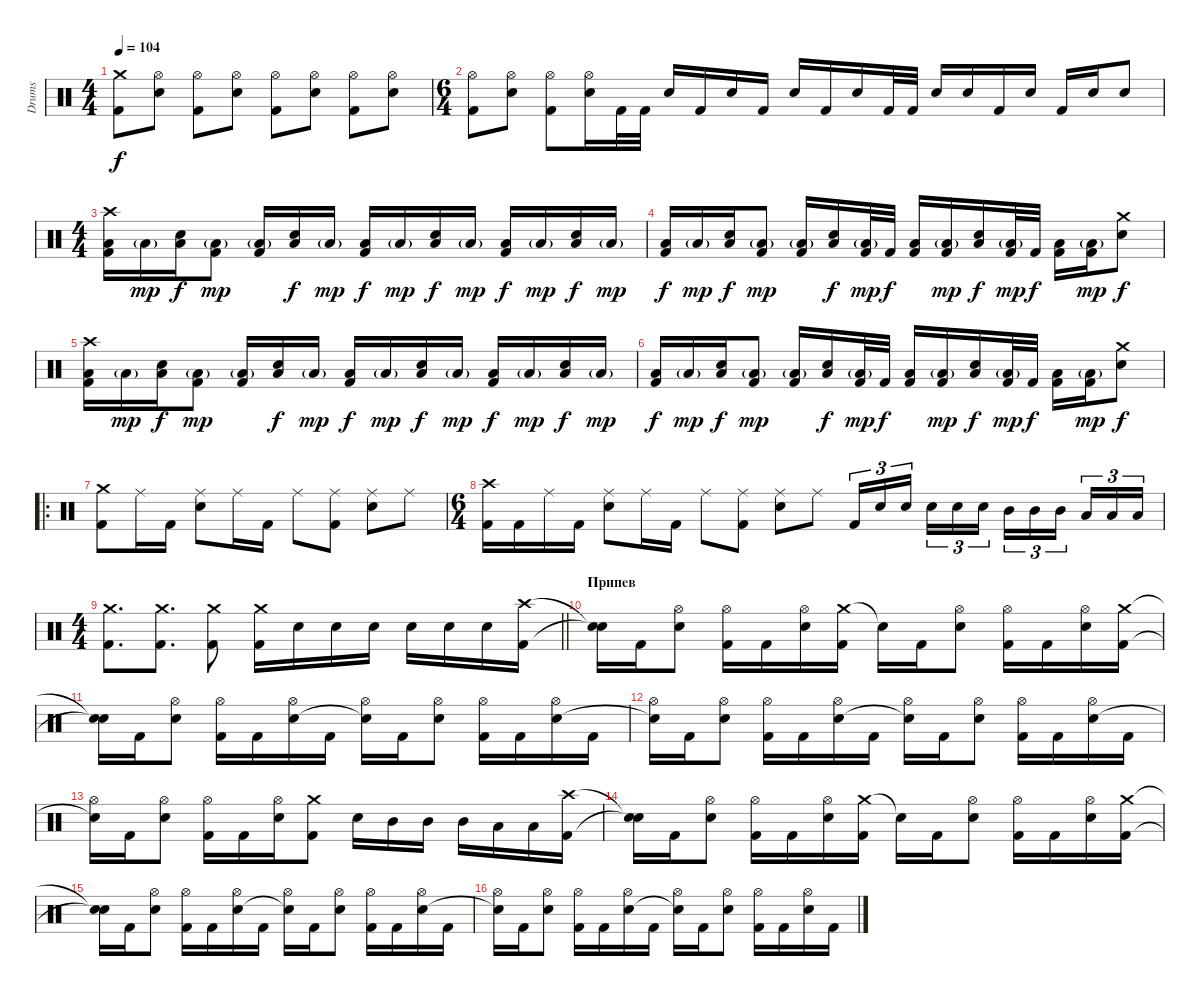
\track ("Drums" "Drums") {instrument percussion}
\staff {score}
\articulation defaults
\ts (4 4)
\tempo 104
\clef neutral
\ks c
("Crash medium (hit)" "Kick (hit) 2").8{dy f} ("Hi-Hat (open)" "Electric Snare (hit)").8 ("Hi-Hat (open)" "Kick (hit) 2").8 ("Hi-Hat (open)" "Electric Snare (hit)").8 ("Hi-Hat (open)" "Kick (hit) 2").8 ("Hi-Hat (open)" "Electric Snare (hit)").8 ("Hi-Hat (open)" "Kick (hit) 2").8 ("Hi-Hat (open)" "Electric Snare (hit)").8 |
\ts (6 4)
("Hi-Hat (open)" "Kick (hit) 2").8 ("Hi-Hat (open)" "Electric Snare (hit)").8 ("Hi-Hat (open)" "Kick (hit) 2").8 ("Hi-Hat (open)" "Electric Snare (hit)").16 "Kick (hit) 2".32 "Kick (hit) 2".32 "Electric Snare (hit)".16 "Kick (hit) 2".16 "Electric Snare (hit)".16 "Kick (hit) 2".16 "Electric Snare (hit)".16 "Kick (hit) 2".16 "Electric Snare (hit)".16 "Kick (hit) 2".32 "Kick (hit) 2".32 "Electric Snare (hit)".16 "Electric Snare (hit)".16 "Kick (hit) 2".16 "Electric Snare (hit)".16 "Kick (hit) 2".16 "Electric Snare (hit)".16 "Electric Snare (hit)".8 |
\ts (4 4)
("Low Floor Tom (hit)" "Crash high (hit)" "Kick (hit) 2").16 "Low Floor Tom (hit)"{g}.16{dy mp} ("Low Floor Tom (hit)" "Electric Snare (hit)").16{dy f} ("Low Floor Tom (hit)"{g} "Kick (hit) 2").8{dy mp} ("Low Floor Tom (hit)"{g} "Kick (hit) 2").16 ("Low Floor Tom (hit)" "Electric Snare (hit)").16{dy f} "Low Floor Tom (hit)"{g}.16{dy mp} ("Low Floor Tom (hit)" "Kick (hit) 2").16{dy f} "Low Floor Tom (hit)"{g}.16{dy mp} ("Low Floor Tom (hit)" "Electric Snare (hit)").16{dy f} "Low Floor Tom (hit)"{g}.16{dy mp} ("Low Floor Tom (hit)" "Kick (hit) 2").16{dy f} "Low Floor Tom (hit)"{g}.16{dy mp} ("Low Floor Tom (hit)" "Electric Snare (hit)").16{dy f} "Low Floor Tom (hit)"{g}.16{dy mp} |
("Low Floor Tom (hit)" "Kick (hit) 2").16{dy f} "Low Floor Tom (hit)"{g}.16{dy mp} ("Low Floor Tom (hit)" "Electric Snare (hit)").16{dy f} ("Low Floor Tom (hit)"{g} "Kick (hit) 2").8{dy mp} ("Low Floor Tom (hit)"{g} "Kick (hit) 2").16 ("Low Floor Tom (hit)" "Electric Snare (hit)").16{dy f} ("Low Floor Tom (hit)"{g} "Kick (hit) 2").32{dy mp} "Kick (hit) 2".32{dy f} ("Low Floor Tom (hit)" "Kick (hit) 2").16 ("Low Floor Tom (hit)"{g} "Kick (hit) 2").16{dy mp} ("Low Floor Tom (hit)" "Electric Snare (hit)").16{dy f} ("Low Floor Tom (hit)"{g} "Kick (hit) 2").32{dy mp} "Kick (hit) 2".32{dy f} ("Low Floor Tom (hit)" "Kick (hit) 2").16 ("Low Floor Tom (hit)"{g} "Kick (hit) 2").16{dy mp} ("Crash medium (hit)" "Electric Snare (hit)").8{dy f} |
("Low Floor Tom (hit)" "Crash high (hit)" "Kick (hit) 2").16 "Low Floor Tom (hit)"{g}.16{dy mp} ("Low Floor Tom (hit)" "Electric Snare (hit)").16{dy f} ("Low Floor Tom (hit)"{g} "Kick (hit) 2").8{dy mp} ("Low Floor Tom (hit)"{g} "Kick (hit) 2").16 ("Low Floor Tom (hit)" "Electric Snare (hit)").16{dy f} "Low Floor Tom (hit)"{g}.16{dy mp} ("Low Floor Tom (hit)" "Kick (hit) 2").16{dy f} "Low Floor Tom (hit)"{g}.16{dy mp} ("Low Floor Tom (hit)" "Electric Snare (hit)").16{dy f} "Low Floor Tom (hit)"{g}.16{dy mp} ("Low Floor Tom (hit)" "Kick (hit) 2").16{dy f} "Low Floor Tom (hit)"{g}.16{dy mp} ("Low Floor Tom (hit)" "Electric Snare (hit)").16{dy f} "Low Floor Tom (hit)"{g}.16{dy mp} |
("Low Floor Tom (hit)" "Kick (hit) 2").16{dy f} "Low Floor Tom (hit)"{g}.16{dy mp} ("Low Floor Tom (hit)" "Electric Snare (hit)").16{dy f} ("Low Floor Tom (hit)"{g} "Kick (hit) 2").8{dy mp} ("Low Floor Tom (hit)"{g} "Kick (hit) 2").16 ("Low Floor Tom (hit)" "Electric Snare (hit)").16{dy f} ("Low Floor Tom (hit)"{g} "Kick (hit) 2").32{dy mp} "Kick (hit) 2".32{dy f} ("Low Floor Tom (hit)" "Kick (hit) 2").16 ("Low Floor Tom (hit)"{g} "Kick (hit) 2").16{dy mp} ("Low Floor Tom (hit)" "Electric Snare (hit)").16{dy f} ("Low Floor Tom (hit)"{g} "Kick (hit) 2").32{dy mp} "Kick (hit) 2".32{dy f} ("Low Floor Tom (hit)" "Kick (hit) 2").16 ("Low Floor Tom (hit)"{g} "Kick (hit) 2").16{dy mp} ("Crash medium (hit)" "Electric Snare (hit)").8{dy f} |
\ro
("Crash medium (hit)" "Kick (hit) 2").8 "Ride (middle)".16 "Kick (hit) 2".16 ("Ride (middle)" "Electric Snare (hit)").8 "Ride (middle)".16 "Kick (hit) 2".16 "Ride (middle)".8 ("Ride (middle)" "Kick (hit) 2").8 ("Ride (middle)" "Electric Snare (hit)").8 "Ride (middle)".8 |
\ts (6 4)
("Crash high (hit)" "Kick (hit) 2").16 "Kick (hit) 2".16 "Ride (middle)".16 "Kick (hit) 2".16 ("Ride (middle)" "Electric Snare (hit)").8 "Ride (middle)".16 "Kick (hit) 2".16 "Ride (middle)".8 ("Ride (middle)" "Kick (hit) 2").8 ("Ride (middle)" "Electric Snare (hit)").8 "Ride (middle)".8 "Kick (hit) 2".16{tu (3 2)} "Electric Snare (hit)".16{tu (3 2)} "Electric Snare (hit)".16{tu (3 2) beam splitsecondary} "Electric Snare (hit)".16{tu (3 2)} "Electric Snare (hit)".16{tu (3 2)} "Electric Snare (hit)".16{tu (3 2) beam splitsecondary} "Mid Tom (hit)".16{tu (3 2)} "Mid Tom (hit)".16{tu (3 2)} "Mid Tom (hit)".16{tu (3 2) beam splitsecondary} "Low Tom (hit)".16{tu (3 2)} "Low Tom (hit)".16{tu (3 2)} "Low Tom (hit)".16{tu (3 2)} |
\ts (4 4)
\barLineRight lightlight
("Crash medium (hit)" "Kick (hit) 2").8{d} ("Crash medium (hit)" "Kick (hit) 2").8{d} ("Crash medium (hit)" "Kick (hit) 2").8 ("Crash medium (hit)" "Kick (hit) 2").16 "Electric Snare (hit)".16 "Electric Snare (hit)".16 "Electric Snare (hit)".16 "Electric Snare (hit)".16 "Electric Snare (hit)".16 "Electric Snare (hit)".16 ("Crash high (hit)" "Kick (hit) 2").16 |
\section ("" "Припев")
("Snare (hit)"{t} "Snare (hit)"{t}).16 "Kick (hit) 2".16 ("Hi-Hat (open)" "Electric Snare (hit)").8 ("Hi-Hat (open)" "Kick (hit) 2").16 "Kick (hit) 2".16 ("Hi-Hat (open)" "Electric Snare (hit)").16 ("Crash medium (hit)" "Kick (hit) 2").16 "Snare (hit)"{t}.16 "Kick (hit) 2".16 ("Hi-Hat (open)" "Electric Snare (hit)").8 ("Hi-Hat (open)" "Kick (hit) 2").16 "Kick (hit) 2".16 ("Hi-Hat (open)" "Electric Snare (hit)").16 ("Crash medium (hit)" "Kick (hit) 2").16 |
("Snare (hit)"{t} "Snare (hit)"{t}).16 "Kick (hit) 2".16 ("Hi-Hat (open)" "Electric Snare (hit)").8 ("Hi-Hat (open)" "Kick (hit) 2").16 "Kick (hit) 2".16 ("Hi-Hat (open)" "Electric Snare (hit)").16 "Kick (hit) 2".16 ("Hi-Hat (open)" "Snare (hit)"{t}).16 "Kick (hit) 2".16 ("Hi-Hat (open)" "Electric Snare (hit)").8 ("Hi-Hat (open)" "Kick (hit) 2").16 "Kick (hit) 2".16 ("Hi-Hat (open)" "Electric Snare (hit)").16 "Kick (hit) 2".16 |
("Hi-Hat (open)" "Snare (hit)"{t}).16 "Kick (hit) 2".16 ("Hi-Hat (open)" "Electric Snare (hit)").8 ("Hi-Hat (open)" "Kick (hit) 2").16 "Kick (hit) 2".16 ("Hi-Hat (open)" "Electric Snare (hit)").16 "Kick (hit) 2".16 ("Hi-Hat (open)" "Snare (hit)"{t}).16 "Kick (hit) 2".16 ("Hi-Hat (open)" "Electric Snare (hit)").8 ("Hi-Hat (open)" "Kick (hit) 2").16 "Kick (hit) 2".16 ("Hi-Hat (open)" "Electric Snare (hit)").16 "Kick (hit) 2".16 |
("Hi-Hat (open)" "Snare (hit)"{t}).16 "Kick (hit) 2".16 ("Hi-Hat (open)" "Electric Snare (hit)").8 ("Hi-Hat (open)" "Kick (hit) 2").16 "Kick (hit) 2".16 ("Hi-Hat (open)" "Electric Snare (hit)").16 ("Crash medium (hit)" "Kick (hit) 2").8 "Electric Snare (hit)".16 "Mid Tom (hit)".16 "Mid Tom (hit)".16 "Mid Tom (hit)".16 "Low Tom (hit)".16 "Low Tom (hit)".16 ("Crash high (hit)" "Kick (hit) 2").16 |
("Snare (hit)"{t} "Snare (hit)"{t}).16 "Kick (hit) 2".16 ("Hi-Hat (open)" "Electric Snare (hit)").8 ("Hi-Hat (open)" "Kick (hit) 2").16 "Kick (hit) 2".16 ("Hi-Hat (open)" "Electric Snare (hit)").16 ("Crash medium (hit)" "Kick (hit) 2").16 "Snare (hit)"{t}.16 "Kick (hit) 2".16 ("Hi-Hat (open)" "Electric Snare (hit)").8 ("Hi-Hat (open)" "Kick (hit) 2").16 "Kick (hit) 2".16 ("Hi-Hat (open)" "Electric Snare (hit)").16 ("Crash medium (hit)" "Kick (hit) 2").16 |
("Snare (hit)"{t} "Snare (hit)"{t}).16 "Kick (hit) 2".16 ("Hi-Hat (open)" "Electric Snare (hit)").8 ("Hi-Hat (open)" "Kick (hit) 2").16 "Kick (hit) 2".16 ("Hi-Hat (open)" "Electric Snare (hit)").16 "Kick (hit) 2".16 ("Hi-Hat (open)" "Snare (hit)"{t}).16 "Kick (hit) 2".16 ("Hi-Hat (open)" "Electric Snare (hit)").8 ("Hi-Hat (open)" "Kick (hit) 2").16 "Kick (hit) 2".16 ("Hi-Hat (open)" "Electric Snare (hit)").16 "Kick (hit) 2".16 |
("Hi-Hat (open)" "Snare (hit)"{t}).16 "Kick (hit) 2".16 ("Hi-Hat (open)" "Electric Snare (hit)").8 ("Hi-Hat (open)" "Kick (hit) 2").16 "Kick (hit) 2".16 ("Hi-Hat (open)" "Electric Snare (hit)").16 "Kick (hit) 2".16 ("Hi-Hat (open)" "Snare (hit)"{t}).16 "Kick (hit) 2".16 ("Hi-Hat (open)" "Electric Snare (hit)").8 ("Hi-Hat (open)" "Kick (hit) 2").16 "Kick (hit) 2".16 ("Hi-Hat (open)" "Electric Snare (hit)").16 "Kick (hit) 2".16
